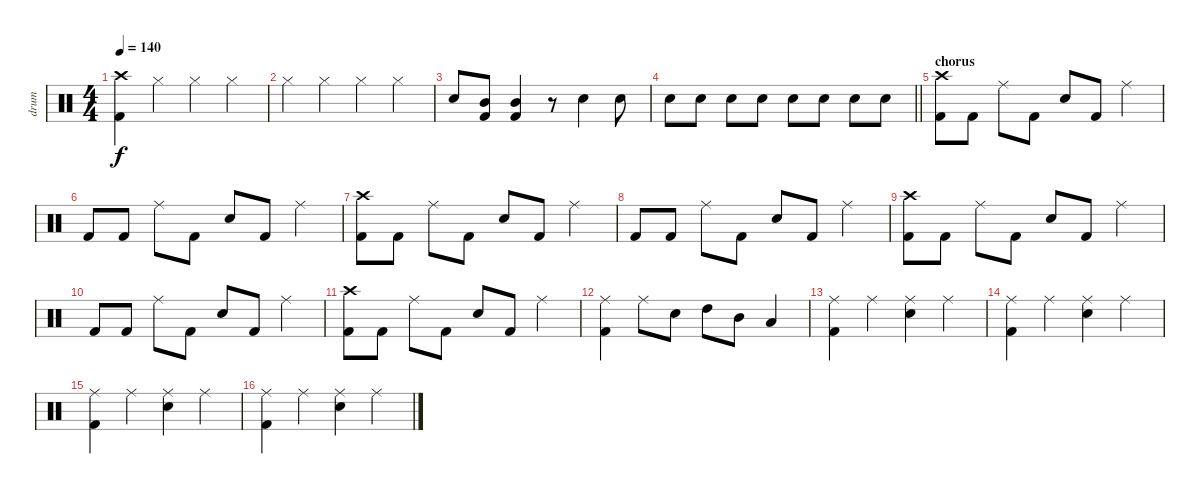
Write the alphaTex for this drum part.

\track ("drum" "drum") {instrument percussion}
\staff {score}
\articulation defaults
\ts (4 4)
\tempo 140
\clef neutral
\ks c
("Crash high (hit)" "Kick (hit) 2").4{dy f} "Hi-Hat (closed)".4 "Hi-Hat (closed)".4 "Hi-Hat (closed)".4 |
"Hi-Hat (closed)".4 "Hi-Hat (closed)".4 "Hi-Hat (closed)".4 "Hi-Hat (closed)".4 |
"Electric Snare (hit)".8 ("Mid Tom (hit)" "Kick (hit) 2").8 ("Mid Tom (hit)" "Kick (hit) 2").4 r.8 "Electric Snare (hit)".4 "Electric Snare (hit)".8 |
\barLineRight lightlight "Electric Snare (hit)".8 "Electric Snare (hit)".8 "Electric Snare (hit)".8 "Electric Snare (hit)".8 "Electric Snare (hit)".8 "Electric Snare (hit)".8 "Electric Snare (hit)".8 "Electric Snare (hit)".8
|
\section ("" "chorus")
("Crash high (hit)" "Kick (hit) 2").8 "Kick (hit) 2".8 "Ride (middle)".8 "Kick (hit) 2".8 "Electric Snare (hit)".8 "Kick (hit) 2".8 "Ride (middle)".4 |
"Kick (hit) 2".8 "Kick (hit) 2".8 "Ride (middle)".8 "Kick (hit) 2".8 "Electric Snare (hit)".8 "Kick (hit) 2".8 "Ride (middle)".4 |
("Crash high (hit)" "Kick (hit) 2").8 "Kick (hit) 2".8 "Ride (middle)".8 "Kick (hit) 2".8 "Electric Snare (hit)".8 "Kick (hit) 2".8 "Ride (middle)".4 |
"Kick (hit) 2".8 "Kick (hit) 2".8 "Ride (middle)".8 "Kick (hit) 2".8 "Electric Snare (hit)".8 "Kick (hit) 2".8 "Ride (middle)".4 |
("Crash high (hit)" "Kick (hit) 2").8 "Kick (hit) 2".8 "Ride (middle)".8 "Kick (hit) 2".8 "Electric Snare (hit)".8 "Kick (hit) 2".8 "Ride (middle)".4 |
"Kick (hit) 2".8 "Kick (hit) 2".8 "Ride (middle)".8 "Kick (hit) 2".8 "Electric Snare (hit)".8 "Kick (hit) 2".8 "Ride (middle)".4 |
("Crash high (hit)" "Kick (hit) 2").8 "Kick (hit) 2".8 "Ride (middle)".8 "Kick (hit) 2".8 "Electric Snare (hit)".8 "Kick (hit) 2".8 "Ride (middle)".4 |
("Ride (middle)" "Kick (hit) 2").4 "Ride (middle)".8 "Electric Snare (hit)".8 "High Tom (hit)".8 "Mid Tom (hit)".8 "Low Tom (hit)".4 |
("Ride (middle)" "Kick (hit) 2").4 "Ride (middle)".4 ("Ride (middle)" "Electric Snare (hit)").4 "Ride (middle)".4 |
("Ride (middle)" "Kick (hit) 2").4 "Ride (middle)".4 ("Ride (middle)" "Electric Snare (hit)").4 "Ride (middle)".4 |
("Ride (middle)" "Kick (hit) 2").4 "Ride (middle)".4 ("Ride (middle)" "Electric Snare (hit)").4 "Ride (middle)".4 |
("Ride (middle)" "Kick (hit) 2").4 "Ride (middle)".4 ("Ride (middle)" "Electric Snare (hit)").4 "Ride (middle)".4
